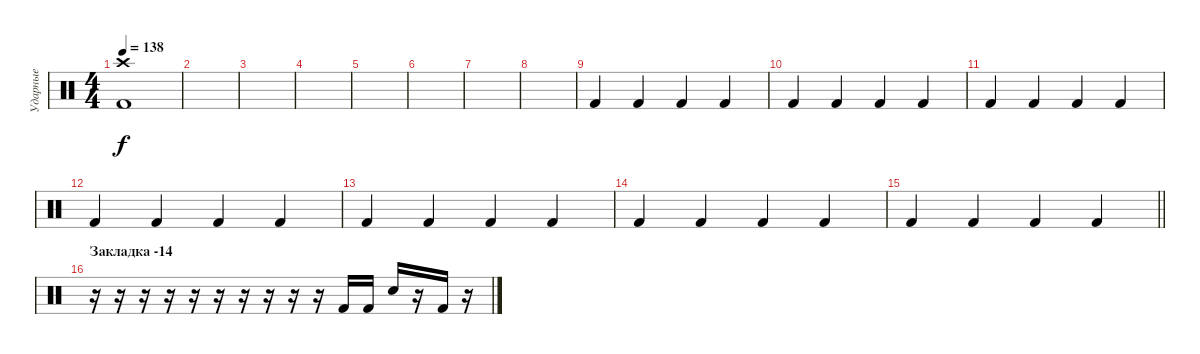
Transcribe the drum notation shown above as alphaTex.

\track ("Ударные" "Ударные") {instrument percussion}
\staff {score}
\articulation defaults
\ts (4 4)
\tempo 138
\clef neutral
\ks c
("Kick (hit) 2" "Crash high (hit)").1{dy f} |
|
|
|
|
|
|
|
"Kick (hit) 2".4 "Kick (hit) 2".4 "Kick (hit) 2".4 "Kick (hit) 2".4 |
"Kick (hit) 2".4 "Kick (hit) 2".4 "Kick (hit) 2".4 "Kick (hit) 2".4 |
"Kick (hit) 2".4 "Kick (hit) 2".4 "Kick (hit) 2".4 "Kick (hit) 2".4 |
"Kick (hit) 2".4 "Kick (hit) 2".4 "Kick (hit) 2".4 "Kick (hit) 2".4 |
"Kick (hit) 2".4 "Kick (hit) 2".4 "Kick (hit) 2".4 "Kick (hit) 2".4 |
"Kick (hit) 2".4 "Kick (hit) 2".4 "Kick (hit) 2".4 "Kick (hit) 2".4 |
\barLineRight lightlight "Kick (hit) 2".4 "Kick (hit) 2".4 "Kick (hit) 2".4 "Kick (hit) 2".4
|
\section ("" "Закладка -14")
r.16 r.16 r.16 r.16 r.16 r.16 r.16 r.16 r.16 r.16 "Kick (hit) 2".16 "Kick (hit) 2".16 "Electric Snare (hit)".16 r.16 "Kick (hit) 2".16 r.16
